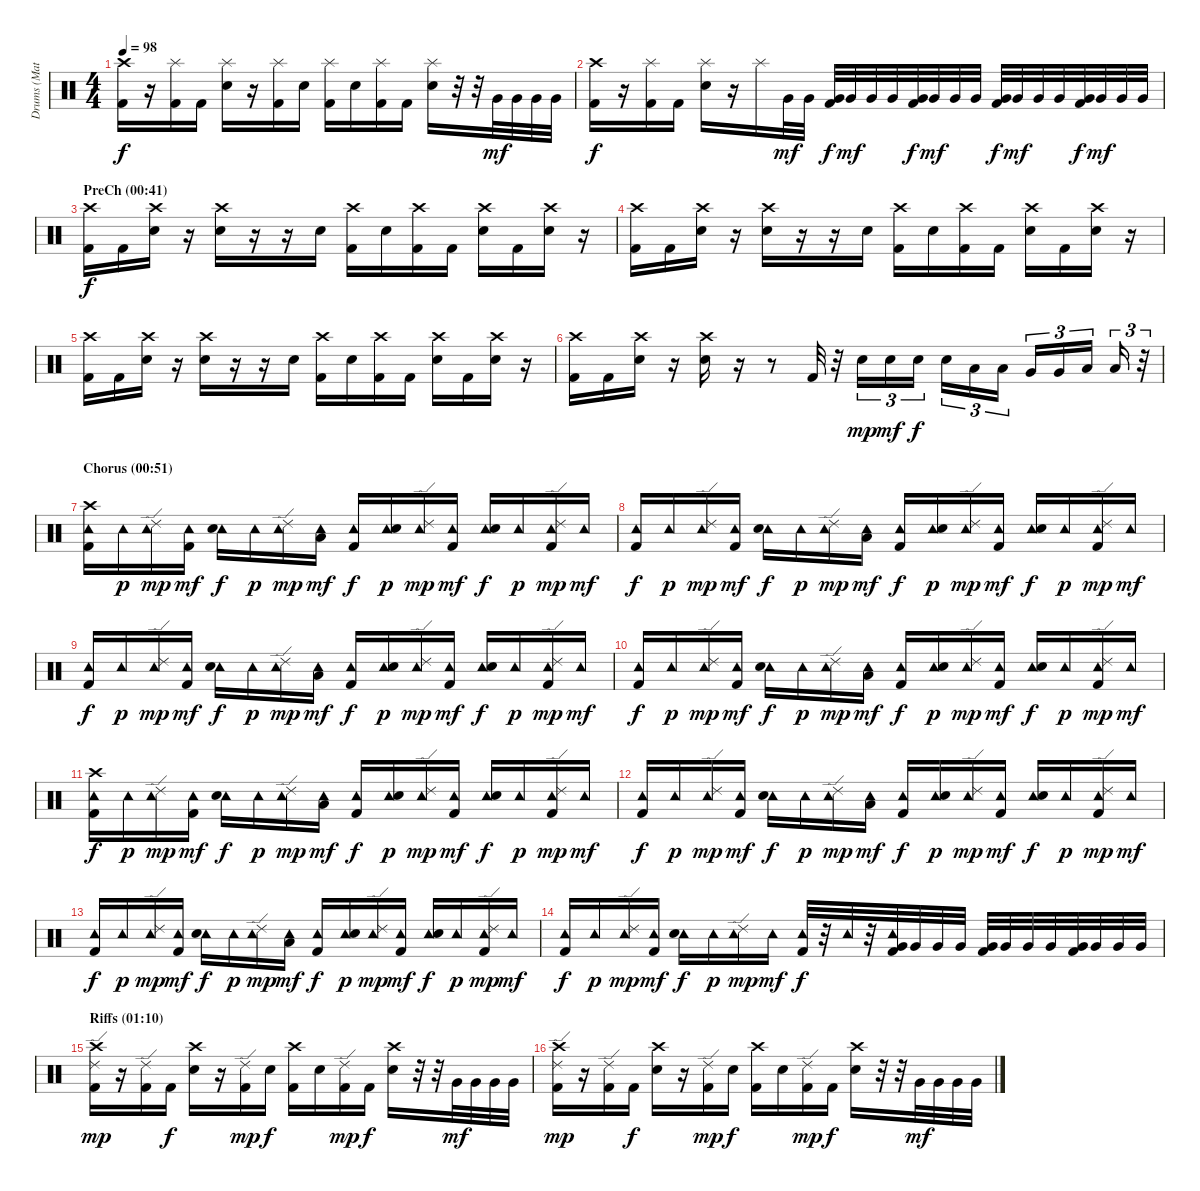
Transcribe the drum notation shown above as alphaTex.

\track ("Drums (Matt Sorum)" "Drums (Mat") {instrument percussion}
\staff {score}
\articulation defaults
\ts (4 4)
\tempo 98
\clef neutral
\ks c
("Crash high (hit)" "Kick (hit) 2").16{dy f} r.16 ("Splash (hit)" "Kick (hit) 2").16 "Kick (hit) 2".16 ("Splash (hit)" "Electric Snare (hit)").16 r.16 ("Splash (hit)" "Kick (hit) 2").16 "Electric Snare (hit)".16 ("Splash (hit)" "Kick (hit) 2").16 "Electric Snare (hit)".16 ("Splash (hit)" "Kick (hit) 2").16 "Kick (hit) 2".16 ("Splash (hit)" "Electric Snare (hit)").16 r.32 r.32 "Very Low Tom (hit)".32{dy mf} "Very Low Tom (hit)".32 "Very Low Tom (hit)".32 "Very Low Tom (hit)".32 |
("Crash high (hit)" "Kick (hit) 2").16{dy f} r.16 ("Splash (hit)" "Kick (hit) 2").16 "Kick (hit) 2".16 ("Splash (hit)" "Electric Snare (hit)").16 r.16 "Splash (hit)".16 "Very Low Tom (hit)".32{dy mf} "Very Low Tom (hit)".32 ("Very Low Tom (hit)" "Kick (hit) 2").32{dy f} "Very Low Tom (hit)".32{dy mf} "Very Low Tom (hit)".32 "Very Low Tom (hit)".32 ("Very Low Tom (hit)" "Kick (hit) 2").32{dy f} "Very Low Tom (hit)".32{dy mf} "Very Low Tom (hit)".32 "Very Low Tom (hit)".32 ("Very Low Tom (hit)" "Kick (hit) 2").32{dy f} "Very Low Tom (hit)".32{dy mf} "Very Low Tom (hit)".32 "Very Low Tom (hit)".32 ("Very Low Tom (hit)" "Kick (hit) 2").32{dy f} "Very Low Tom (hit)".32{dy mf} "Very Low Tom (hit)".32 "Very Low Tom (hit)".32 |
\section ("" "PreCh (00:41)")
("Crash high (hit)" "Kick (hit) 2").16{dy f} "Kick (hit) 2".16 ("Crash high (hit)" "Electric Snare (hit)").16 r.16 ("Crash high (hit)" "Electric Snare (hit)").16 r.16 r.16 "Electric Snare (hit)".16 ("Crash high (hit)" "Kick (hit) 2").16 "Electric Snare (hit)".16 ("Crash high (hit)" "Kick (hit) 2").16 "Kick (hit) 2".16 ("Crash high (hit)" "Electric Snare (hit)").16 "Kick (hit) 2".16 ("Crash high (hit)" "Electric Snare (hit)").16 r.16 |
("Crash high (hit)" "Kick (hit) 2").16 "Kick (hit) 2".16 ("Crash high (hit)" "Electric Snare (hit)").16 r.16 ("Crash high (hit)" "Electric Snare (hit)").16 r.16 r.16 "Electric Snare (hit)".16 ("Crash high (hit)" "Kick (hit) 2").16 "Electric Snare (hit)".16 ("Crash high (hit)" "Kick (hit) 2").16 "Kick (hit) 2".16 ("Crash high (hit)" "Electric Snare (hit)").16 "Kick (hit) 2".16 ("Crash high (hit)" "Electric Snare (hit)").16 r.16 |
("Crash high (hit)" "Kick (hit) 2").16 "Kick (hit) 2".16 ("Crash high (hit)" "Electric Snare (hit)").16 r.16 ("Crash high (hit)" "Electric Snare (hit)").16 r.16 r.16 "Electric Snare (hit)".16 ("Crash high (hit)" "Kick (hit) 2").16 "Electric Snare (hit)".16 ("Crash high (hit)" "Kick (hit) 2").16 "Kick (hit) 2".16 ("Crash high (hit)" "Electric Snare (hit)").16 "Kick (hit) 2".16 ("Crash high (hit)" "Electric Snare (hit)").16 r.16 |
("Crash high (hit)" "Kick (hit) 2").16 "Kick (hit) 2".16 ("Crash high (hit)" "Electric Snare (hit)").16 r.16 ("Crash high (hit)" "Electric Snare (hit)").16 r.16 r.8 "Kick (hit) 2".32 r.32 "Electric Snare (hit)".16{tu (3 2) dy mp} "Electric Snare (hit)".16{tu (3 2) dy mf} "Electric Snare (hit)".16{tu (3 2) dy f} "Electric Snare (hit)".16{tu (3 2)} "Low Tom (hit)".16{tu (3 2)} "Low Tom (hit)".16{tu (3 2)} "Very Low Tom (hit)".16{tu (3 2)} "Very Low Tom (hit)".16{tu (3 2)} "Low Floor Tom (hit)".16{tu (3 2)} "Low Floor Tom (hit)".16{tu (3 2)} r.32{tu (3 2)} |
\section ("" "Chorus (00:51)")
("Tambourine (hit)" "Crash high (hit)" "Kick (hit) 2").16 "Tambourine (hit)".16{dy p} ("Tambourine (hit)" "Ride (edge) 2").16{dy mp} ("Tambourine (hit)" "Kick (hit) 2").16{dy mf} ("Tambourine (hit)" "Electric Snare (hit)").16{dy f} "Tambourine (hit)".16{dy p} ("Tambourine (hit)" "Ride (edge) 2").16{dy mp} ("Tambourine (hit)" "Low Tom (hit)").16{dy mf} ("Tambourine (hit)" "Kick (hit) 2").16{dy f} ("Tambourine (hit)" "Electric Snare (hit)").16{dy p} ("Tambourine (hit)" "Ride (edge) 2").16{dy mp} ("Tambourine (hit)" "Kick (hit) 2").16{dy mf} ("Tambourine (hit)" "Electric Snare (hit)").16{dy f} "Tambourine (hit)".16{dy p} ("Tambourine (hit)" "Ride (edge) 2" "Kick (hit) 2").16{dy mp} "Tambourine (hit)".16{dy mf} |
("Tambourine (hit)" "Kick (hit) 2").16{dy f} "Tambourine (hit)".16{dy p} ("Tambourine (hit)" "Ride (edge) 2").16{dy mp} ("Tambourine (hit)" "Kick (hit) 2").16{dy mf} ("Tambourine (hit)" "Electric Snare (hit)").16{dy f} "Tambourine (hit)".16{dy p} ("Tambourine (hit)" "Ride (edge) 2").16{dy mp} ("Tambourine (hit)" "Low Tom (hit)").16{dy mf} ("Tambourine (hit)" "Kick (hit) 2").16{dy f} ("Tambourine (hit)" "Electric Snare (hit)").16{dy p} ("Tambourine (hit)" "Ride (edge) 2").16{dy mp} ("Tambourine (hit)" "Kick (hit) 2").16{dy mf} ("Tambourine (hit)" "Electric Snare (hit)").16{dy f} "Tambourine (hit)".16{dy p} ("Tambourine (hit)" "Ride (edge) 2" "Kick (hit) 2").16{dy mp} "Tambourine (hit)".16{dy mf} |
("Tambourine (hit)" "Kick (hit) 2").16{dy f} "Tambourine (hit)".16{dy p} ("Tambourine (hit)" "Ride (edge) 2").16{dy mp} ("Tambourine (hit)" "Kick (hit) 2").16{dy mf} ("Tambourine (hit)" "Electric Snare (hit)").16{dy f} "Tambourine (hit)".16{dy p} ("Tambourine (hit)" "Ride (edge) 2").16{dy mp} ("Tambourine (hit)" "Low Tom (hit)").16{dy mf} ("Tambourine (hit)" "Kick (hit) 2").16{dy f} ("Tambourine (hit)" "Electric Snare (hit)").16{dy p} ("Tambourine (hit)" "Ride (edge) 2").16{dy mp} ("Tambourine (hit)" "Kick (hit) 2").16{dy mf} ("Tambourine (hit)" "Electric Snare (hit)").16{dy f} "Tambourine (hit)".16{dy p} ("Tambourine (hit)" "Ride (edge) 2" "Kick (hit) 2").16{dy mp} "Tambourine (hit)".16{dy mf} |
("Tambourine (hit)" "Kick (hit) 2").16{dy f} "Tambourine (hit)".16{dy p} ("Tambourine (hit)" "Ride (edge) 2").16{dy mp} ("Tambourine (hit)" "Kick (hit) 2").16{dy mf} ("Tambourine (hit)" "Electric Snare (hit)").16{dy f} "Tambourine (hit)".16{dy p} ("Tambourine (hit)" "Ride (edge) 2").16{dy mp} ("Tambourine (hit)" "Low Tom (hit)").16{dy mf} ("Tambourine (hit)" "Kick (hit) 2").16{dy f} ("Tambourine (hit)" "Electric Snare (hit)").16{dy p} ("Tambourine (hit)" "Ride (edge) 2").16{dy mp} ("Tambourine (hit)" "Kick (hit) 2").16{dy mf} ("Tambourine (hit)" "Electric Snare (hit)").16{dy f} "Tambourine (hit)".16{dy p} ("Tambourine (hit)" "Ride (edge) 2" "Kick (hit) 2").16{dy mp} "Tambourine (hit)".16{dy mf} |
("Tambourine (hit)" "Crash high (hit)" "Kick (hit) 2").16{dy f} "Tambourine (hit)".16{dy p} ("Tambourine (hit)" "Ride (edge) 2").16{dy mp} ("Tambourine (hit)" "Kick (hit) 2").16{dy mf} ("Tambourine (hit)" "Electric Snare (hit)").16{dy f} "Tambourine (hit)".16{dy p} ("Tambourine (hit)" "Ride (edge) 2").16{dy mp} ("Tambourine (hit)" "Low Tom (hit)").16{dy mf} ("Tambourine (hit)" "Kick (hit) 2").16{dy f} ("Tambourine (hit)" "Electric Snare (hit)").16{dy p} ("Tambourine (hit)" "Ride (edge) 2").16{dy mp} ("Tambourine (hit)" "Kick (hit) 2").16{dy mf} ("Tambourine (hit)" "Electric Snare (hit)").16{dy f} "Tambourine (hit)".16{dy p} ("Tambourine (hit)" "Ride (edge) 2" "Kick (hit) 2").16{dy mp} "Tambourine (hit)".16{dy mf} |
("Tambourine (hit)" "Kick (hit) 2").16{dy f} "Tambourine (hit)".16{dy p} ("Tambourine (hit)" "Ride (edge) 2").16{dy mp} ("Tambourine (hit)" "Kick (hit) 2").16{dy mf} ("Tambourine (hit)" "Electric Snare (hit)").16{dy f} "Tambourine (hit)".16{dy p} ("Tambourine (hit)" "Ride (edge) 2").16{dy mp} ("Tambourine (hit)" "Low Tom (hit)").16{dy mf} ("Tambourine (hit)" "Kick (hit) 2").16{dy f} ("Tambourine (hit)" "Electric Snare (hit)").16{dy p} ("Tambourine (hit)" "Ride (edge) 2").16{dy mp} ("Tambourine (hit)" "Kick (hit) 2").16{dy mf} ("Tambourine (hit)" "Electric Snare (hit)").16{dy f} "Tambourine (hit)".16{dy p} ("Tambourine (hit)" "Ride (edge) 2" "Kick (hit) 2").16{dy mp} "Tambourine (hit)".16{dy mf} |
("Tambourine (hit)" "Kick (hit) 2").16{dy f} "Tambourine (hit)".16{dy p} ("Tambourine (hit)" "Ride (edge) 2").16{dy mp} ("Tambourine (hit)" "Kick (hit) 2").16{dy mf} ("Tambourine (hit)" "Electric Snare (hit)").16{dy f} "Tambourine (hit)".16{dy p} ("Tambourine (hit)" "Ride (edge) 2").16{dy mp} ("Tambourine (hit)" "Low Tom (hit)").16{dy mf} ("Tambourine (hit)" "Kick (hit) 2").16{dy f} ("Tambourine (hit)" "Electric Snare (hit)").16{dy p} ("Tambourine (hit)" "Ride (edge) 2").16{dy mp} ("Tambourine (hit)" "Kick (hit) 2").16{dy mf} ("Tambourine (hit)" "Electric Snare (hit)").16{dy f} "Tambourine (hit)".16{dy p} ("Tambourine (hit)" "Ride (edge) 2" "Kick (hit) 2").16{dy mp} "Tambourine (hit)".16{dy mf} |
("Tambourine (hit)" "Kick (hit) 2").16{dy f} "Tambourine (hit)".16{dy p} ("Tambourine (hit)" "Ride (edge) 2").16{dy mp} ("Tambourine (hit)" "Kick (hit) 2").16{dy mf} ("Tambourine (hit)" "Electric Snare (hit)").16{dy f} "Tambourine (hit)".16{dy p} ("Tambourine (hit)" "Ride (edge) 2").16{dy mp} "Tambourine (hit)".16{dy mf} ("Tambourine (hit)" "Kick (hit) 2").32{dy f} r.32 "Tambourine (hit)".32 r.32 ("Tambourine (hit)" "Very Low Tom (hit)" "Kick (hit) 2").32 "Very Low Tom (hit)".32 "Very Low Tom (hit)".32 "Very Low Tom (hit)".32 ("Very Low Tom (hit)" "Kick (hit) 2").32 "Very Low Tom (hit)".32 "Very Low Tom (hit)".32 "Very Low Tom (hit)".32 ("Very Low Tom (hit)" "Kick (hit) 2").32 "Very Low Tom (hit)".32 "Very Low Tom (hit)".32 "Very Low Tom (hit)".32 |
\section ("" "Riffs (01:10)")
("Crash high (hit)" "Ride (edge) 2" "Kick (hit) 2").16{dy mp} r.16 ("Ride (edge) 2" "Kick (hit) 2").16 "Kick (hit) 2".16{dy f} ("Crash high (hit)" "Electric Snare (hit)").16 r.16 ("Ride (edge) 2" "Kick (hit) 2").16{dy mp} "Electric Snare (hit)".16{dy f} ("Crash high (hit)" "Kick (hit) 2").16 "Electric Snare (hit)".16 ("Ride (edge) 2" "Kick (hit) 2").16{dy mp} "Kick (hit) 2".16{dy f} ("Crash high (hit)" "Electric Snare (hit)").16 r.32 r.32 "Very Low Tom (hit)".32{dy mf} "Very Low Tom (hit)".32 "Very Low Tom (hit)".32 "Very Low Tom (hit)".32 |
("Crash high (hit)" "Ride (edge) 2" "Kick (hit) 2").16{dy mp} r.16 ("Ride (edge) 2" "Kick (hit) 2").16 "Kick (hit) 2".16{dy f} ("Crash high (hit)" "Electric Snare (hit)").16 r.16 ("Ride (edge) 2" "Kick (hit) 2").16{dy mp} "Electric Snare (hit)".16{dy f} ("Crash high (hit)" "Kick (hit) 2").16 "Electric Snare (hit)".16 ("Ride (edge) 2" "Kick (hit) 2").16{dy mp} "Kick (hit) 2".16{dy f} ("Crash high (hit)" "Electric Snare (hit)").16 r.32 r.32 "Very Low Tom (hit)".32{dy mf} "Very Low Tom (hit)".32 "Very Low Tom (hit)".32 "Very Low Tom (hit)".32
